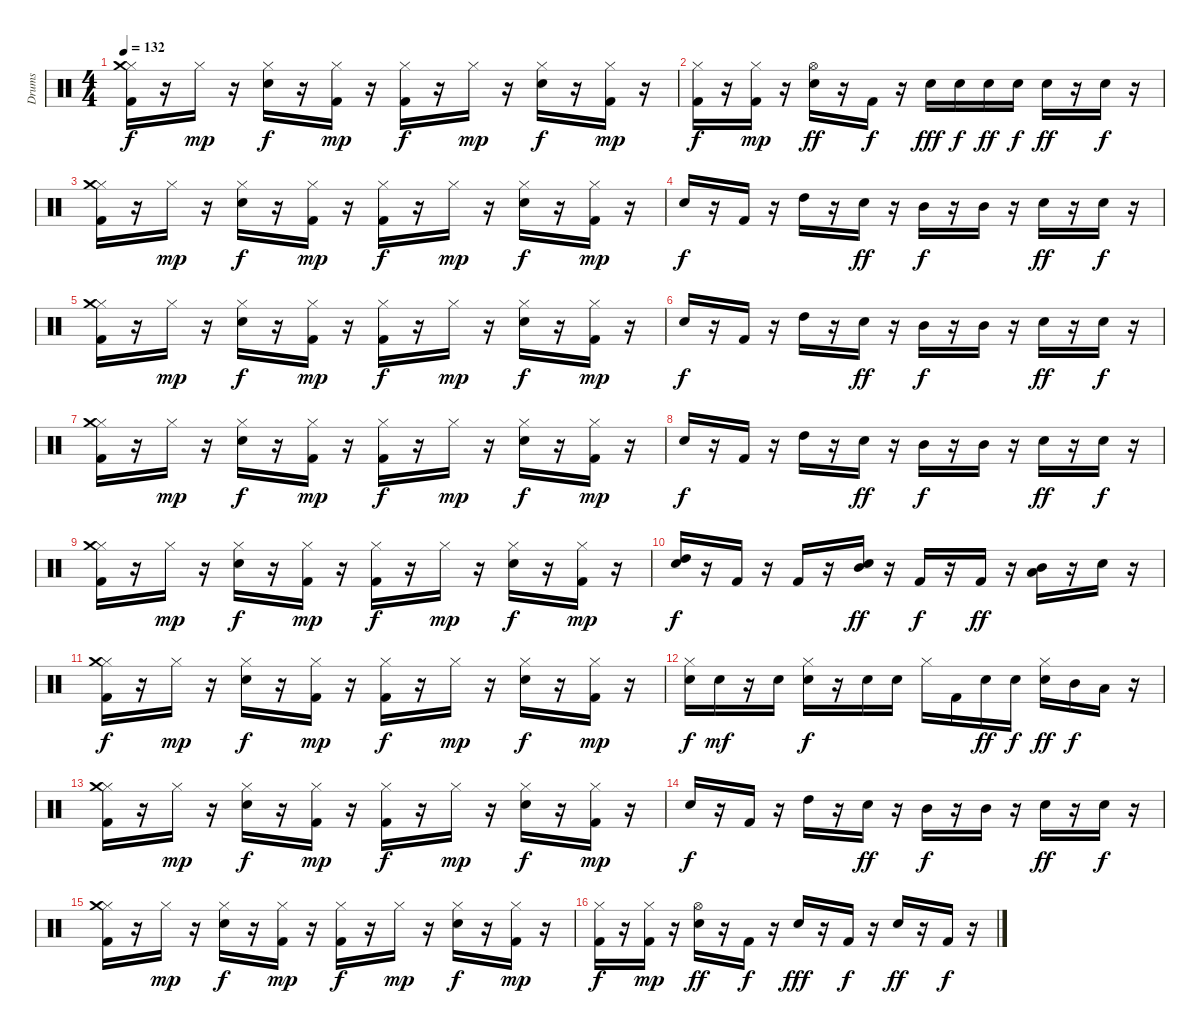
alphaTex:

\track ("Drums" "Drums") {instrument percussion}
\staff {score}
\articulation defaults
\ts (4 4)
\tempo 132
\clef neutral
\ks c
("Kick (hit) 2" "Hi-Hat (closed)" "Crash medium (hit)").16{dy f} r.16 "Hi-Hat (closed)".16{dy mp} r.16 ("Snare (hit) 2" "Hi-Hat (closed)").16{dy f} r.16 ("Kick (hit) 2" "Hi-Hat (closed)").16{dy mp} r.16 ("Kick (hit) 2" "Hi-Hat (closed)").16{dy f} r.16 "Hi-Hat (closed)".16{dy mp} r.16 ("Snare (hit) 2" "Hi-Hat (closed)").16{dy f} r.16 ("Kick (hit) 2" "Hi-Hat (closed)").16{dy mp} r.16 |
("Kick (hit) 2" "Hi-Hat (closed)").16{dy f} r.16 ("Kick (hit) 2" "Hi-Hat (closed)").16{dy mp} r.16 ("Snare (hit) 2" "Hi-Hat (open)").16{dy ff} r.16 "Kick (hit) 2".16{dy f} r.16 "Snare (hit) 2".16{dy fff} "Snare (hit) 2".16{dy f} "Snare (hit) 2".16{dy ff} "Snare (hit) 2".16{dy f} "Snare (hit) 2".16{dy ff} r.16 "Snare (hit) 2".16{dy f} r.16 |
("Kick (hit) 2" "Hi-Hat (closed)" "Crash medium (hit)").16 r.16 "Hi-Hat (closed)".16{dy mp} r.16 ("Snare (hit) 2" "Hi-Hat (closed)").16{dy f} r.16 ("Kick (hit) 2" "Hi-Hat (closed)").16{dy mp} r.16 ("Kick (hit) 2" "Hi-Hat (closed)").16{dy f} r.16 "Hi-Hat (closed)".16{dy mp} r.16 ("Snare (hit) 2" "Hi-Hat (closed)").16{dy f} r.16 ("Kick (hit) 2" "Hi-Hat (closed)").16{dy mp} r.16 |
"Snare (hit) 2".16{dy f} r.16 "Kick (hit) 2".16 r.16 "High Tom (hit)".16 r.16 "Snare (hit) 2".16{dy ff} r.16 "Mid Tom (hit)".16{dy f} r.16 "Mid Tom (hit)".16 r.16 "Snare (hit) 2".16{dy ff} r.16 "Snare (hit) 2".16{dy f} r.16 |
("Kick (hit) 2" "Hi-Hat (closed)" "Crash medium (hit)").16 r.16 "Hi-Hat (closed)".16{dy mp} r.16 ("Snare (hit) 2" "Hi-Hat (closed)").16{dy f} r.16 ("Kick (hit) 2" "Hi-Hat (closed)").16{dy mp} r.16 ("Kick (hit) 2" "Hi-Hat (closed)").16{dy f} r.16 "Hi-Hat (closed)".16{dy mp} r.16 ("Snare (hit) 2" "Hi-Hat (closed)").16{dy f} r.16 ("Kick (hit) 2" "Hi-Hat (closed)").16{dy mp} r.16 |
"Snare (hit) 2".16{dy f} r.16 "Kick (hit) 2".16 r.16 "High Tom (hit)".16 r.16 "Snare (hit) 2".16{dy ff} r.16 "Mid Tom (hit)".16{dy f} r.16 "Mid Tom (hit)".16 r.16 "Snare (hit) 2".16{dy ff} r.16 "Snare (hit) 2".16{dy f} r.16 |
("Kick (hit) 2" "Hi-Hat (closed)" "Crash medium (hit)").16 r.16 "Hi-Hat (closed)".16{dy mp} r.16 ("Snare (hit) 2" "Hi-Hat (closed)").16{dy f} r.16 ("Kick (hit) 2" "Hi-Hat (closed)").16{dy mp} r.16 ("Kick (hit) 2" "Hi-Hat (closed)").16{dy f} r.16 "Hi-Hat (closed)".16{dy mp} r.16 ("Snare (hit) 2" "Hi-Hat (closed)").16{dy f} r.16 ("Kick (hit) 2" "Hi-Hat (closed)").16{dy mp} r.16 |
"Snare (hit) 2".16{dy f} r.16 "Kick (hit) 2".16 r.16 "High Tom (hit)".16 r.16 "Snare (hit) 2".16{dy ff} r.16 "Mid Tom (hit)".16{dy f} r.16 "Mid Tom (hit)".16 r.16 "Snare (hit) 2".16{dy ff} r.16 "Snare (hit) 2".16{dy f} r.16 |
("Kick (hit) 2" "Hi-Hat (closed)" "Crash medium (hit)").16 r.16 "Hi-Hat (closed)".16{dy mp} r.16 ("Snare (hit) 2" "Hi-Hat (closed)").16{dy f} r.16 ("Kick (hit) 2" "Hi-Hat (closed)").16{dy mp} r.16 ("Kick (hit) 2" "Hi-Hat (closed)").16{dy f} r.16 "Hi-Hat (closed)".16{dy mp} r.16 ("Snare (hit) 2" "Hi-Hat (closed)").16{dy f} r.16 ("Kick (hit) 2" "Hi-Hat (closed)").16{dy mp} r.16 |
("Snare (hit) 2" "High Tom (hit)").16{dy f} r.16 "Kick (hit) 2".16 r.16 "Kick (hit) 2".16 r.16 ("Snare (hit) 2" "Mid Tom (hit)").16{dy ff} r.16 "Kick (hit) 2".16{dy f} r.16 "Kick (hit) 2".16{dy ff} r.16 ("Low Floor Tom (hit)" "Mid Tom (hit)").16 r.16 "Snare (hit) 2".16 r.16 |
("Kick (hit) 2" "Hi-Hat (closed)" "Crash medium (hit)").16{dy f} r.16 "Hi-Hat (closed)".16{dy mp} r.16 ("Snare (hit) 2" "Hi-Hat (closed)").16{dy f} r.16 ("Kick (hit) 2" "Hi-Hat (closed)").16{dy mp} r.16 ("Kick (hit) 2" "Hi-Hat (closed)").16{dy f} r.16 "Hi-Hat (closed)".16{dy mp} r.16 ("Snare (hit) 2" "Hi-Hat (closed)").16{dy f} r.16 ("Kick (hit) 2" "Hi-Hat (closed)").16{dy mp} r.16 |
("Snare (hit) 2" "Hi-Hat (closed)").16{dy f} "Snare (hit) 2".16{dy mf} r.16 "Snare (hit) 2".16 ("Snare (hit) 2" "Hi-Hat (closed)").16{dy f} r.16 "Snare (hit) 2".16 "Snare (hit) 2".16 "Hi-Hat (closed)".16 "Kick (hit) 2".16 "Snare (hit) 2".16{dy ff} "Snare (hit) 2".16{dy f} ("Snare (hit) 2" "Hi-Hat (closed)").16{dy ff} "Mid Tom (hit)".16{dy f} "Low Floor Tom (hit)".16 r.16 |
("Kick (hit) 2" "Hi-Hat (closed)" "Crash medium (hit)").16 r.16 "Hi-Hat (closed)".16{dy mp} r.16 ("Snare (hit) 2" "Hi-Hat (closed)").16{dy f} r.16 ("Kick (hit) 2" "Hi-Hat (closed)").16{dy mp} r.16 ("Kick (hit) 2" "Hi-Hat (closed)").16{dy f} r.16 "Hi-Hat (closed)".16{dy mp} r.16 ("Snare (hit) 2" "Hi-Hat (closed)").16{dy f} r.16 ("Kick (hit) 2" "Hi-Hat (closed)").16{dy mp} r.16 |
"Snare (hit) 2".16{dy f} r.16 "Kick (hit) 2".16 r.16 "High Tom (hit)".16 r.16 "Snare (hit) 2".16{dy ff} r.16 "Mid Tom (hit)".16{dy f} r.16 "Mid Tom (hit)".16 r.16 "Snare (hit) 2".16{dy ff} r.16 "Snare (hit) 2".16{dy f} r.16 |
("Kick (hit) 2" "Hi-Hat (closed)" "Crash medium (hit)").16 r.16 "Hi-Hat (closed)".16{dy mp} r.16 ("Snare (hit) 2" "Hi-Hat (closed)").16{dy f} r.16 ("Kick (hit) 2" "Hi-Hat (closed)").16{dy mp} r.16 ("Kick (hit) 2" "Hi-Hat (closed)").16{dy f} r.16 "Hi-Hat (closed)".16{dy mp} r.16 ("Snare (hit) 2" "Hi-Hat (closed)").16{dy f} r.16 ("Kick (hit) 2" "Hi-Hat (closed)").16{dy mp} r.16 |
("Kick (hit) 2" "Hi-Hat (closed)").16{dy f} r.16 ("Kick (hit) 2" "Hi-Hat (closed)").16{dy mp} r.16 ("Snare (hit) 2" "Hi-Hat (open)").16{dy ff} r.16 "Kick (hit) 2".16{dy f} r.16 "Snare (hit) 2".16{dy fff} r.16 "Kick (hit) 2".16{dy f} r.16 "Snare (hit) 2".16{dy ff} r.16 "Kick (hit) 2".16{dy f} r.16
